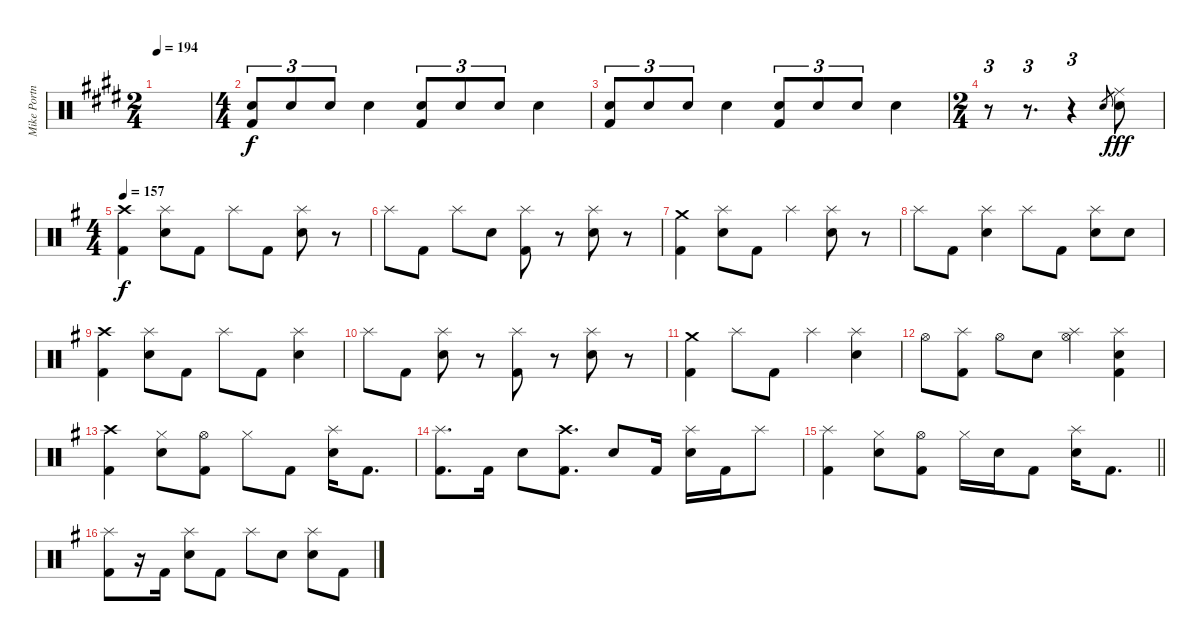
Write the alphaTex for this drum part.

\track ("Mike Portnoy" "Mike Portn") {instrument percussion}
\staff {score}
\articulation defaults
\ts (2 4)
\tempo 194
\clef neutral
\ks c#minor
|
\ts (4 4)
("Kick (hit) 2" "Snare (hit) 2").8{tu (3 2)} "Snare (hit) 2".8{tu (3 2)} "Snare (hit) 2".8{tu (3 2)} "Snare (hit) 2".4 ("Kick (hit) 2" "Snare (hit) 2").8{tu (3 2)} "Snare (hit) 2".8{tu (3 2)} "Snare (hit) 2".8{tu (3 2)} "Snare (hit) 2".4 |
("Kick (hit) 2" "Snare (hit) 2").8{tu (3 2)} "Snare (hit) 2".8{tu (3 2)} "Snare (hit) 2".8{tu (3 2)} "Snare (hit) 2".4 ("Kick (hit) 2" "Snare (hit) 2").8{tu (3 2)} "Snare (hit) 2".8{tu (3 2)} "Snare (hit) 2".8{tu (3 2)} "Snare (hit) 2".4 |
\ts (2 4)
\ks e
r.8{tu (3 2)} r.8{d tu (3 2)} r.4{tu (3 2)} "Snare (hit) 2".8{gr dy f} ("Ride (middle)" "Snare (hit) 2").8{dy fff} |
\ts (4 4)
\tempo 157
\ks g
("Kick (hit) 2" "Crash high (hit)").4{dy f} ("Snare (hit) 2" "Splash (hit)").8 "Kick (hit) 2".8 "Splash (hit)".8 "Kick (hit) 2".8 ("Snare (hit) 2" "Splash (hit)").8 r.8 |
"Splash (hit)".8 "Kick (hit) 2".8 "Splash (hit)".8 "Snare (hit) 2".8 ("Kick (hit) 2" "Splash (hit)").8 r.8 ("Snare (hit) 2" "Splash (hit)").8 r.8 |
("Kick (hit) 2" "Crash medium (hit)").4 ("Snare (hit) 2" "Splash (hit)").8 "Kick (hit) 2".8 "Splash (hit)".4 ("Snare (hit) 2" "Splash (hit)").8 r.8 |
"Splash (hit)".8 "Kick (hit) 2".8 ("Snare (hit) 2" "Splash (hit)").4 "Splash (hit)".8 "Kick (hit) 2".8 ("Snare (hit) 2" "Splash (hit)").8 "Snare (hit) 2".8 |
("Kick (hit) 2" "Crash high (hit)").4 ("Snare (hit) 2" "Splash (hit)").8 "Kick (hit) 2".8 "Splash (hit)".8 "Kick (hit) 2".8 ("Snare (hit) 2" "Splash (hit)").4 |
"Splash (hit)".8 "Kick (hit) 2".8 ("Snare (hit) 2" "Splash (hit)").8 r.8 ("Kick (hit) 2" "Splash (hit)").8 r.8 ("Snare (hit) 2" "Splash (hit)").8 r.8 |
("Kick (hit) 2" "Crash medium (hit)").4 "Splash (hit)".8 "Kick (hit) 2".8 "Splash (hit)".4 ("Snare (hit) 2" "Splash (hit)").4 |
"Hi-Hat (open)".8 ("Kick (hit) 2" "Splash (hit)").8 "Hi-Hat (open)".8 "Snare (hit) 2".8 ("Hi-Hat (open)" "Splash (hit)").4 ("Kick (hit) 2" "Snare (hit) 2" "Splash (hit)").4 |
("Kick (hit) 2" "Crash high (hit)").4 ("Snare (hit) 2" "Hi-Hat (closed)").8 ("Kick (hit) 2" "Hi-Hat (open)").8 "Hi-Hat (closed)".8 "Kick (hit) 2".8 ("Snare (hit) 2" "Splash (hit)").16 "Kick (hit) 2".8{d} |
("Kick (hit) 2" "Splash (hit)").8{d} "Kick (hit) 2".16 "Snare (hit) 2".8 ("Kick (hit) 2" "Crash high (hit)").8{d} "Snare (hit) 2".8 "Kick (hit) 2".16 ("Snare (hit) 2" "Splash (hit)").16 "Kick (hit) 2".16 "Splash (hit)".8 |
\barLineRight lightlight
("Kick (hit) 2" "Splash (hit)").4 ("Snare (hit) 2" "Hi-Hat (closed)").8 ("Kick (hit) 2" "Hi-Hat (open)").8 "Hi-Hat (closed)".16 "Snare (hit) 2".16 "Kick (hit) 2".8 ("Snare (hit) 2" "Splash (hit)").16 "Kick (hit) 2".8{d} |
("Kick (hit) 2" "Splash (hit)").8 r.16 "Kick (hit) 2".16 ("Snare (hit) 2" "Splash (hit)").8 "Kick (hit) 2".8 "Splash (hit)".8 "Snare (hit) 2".8 ("Snare (hit) 2" "Splash (hit)").8 "Kick (hit) 2".8
